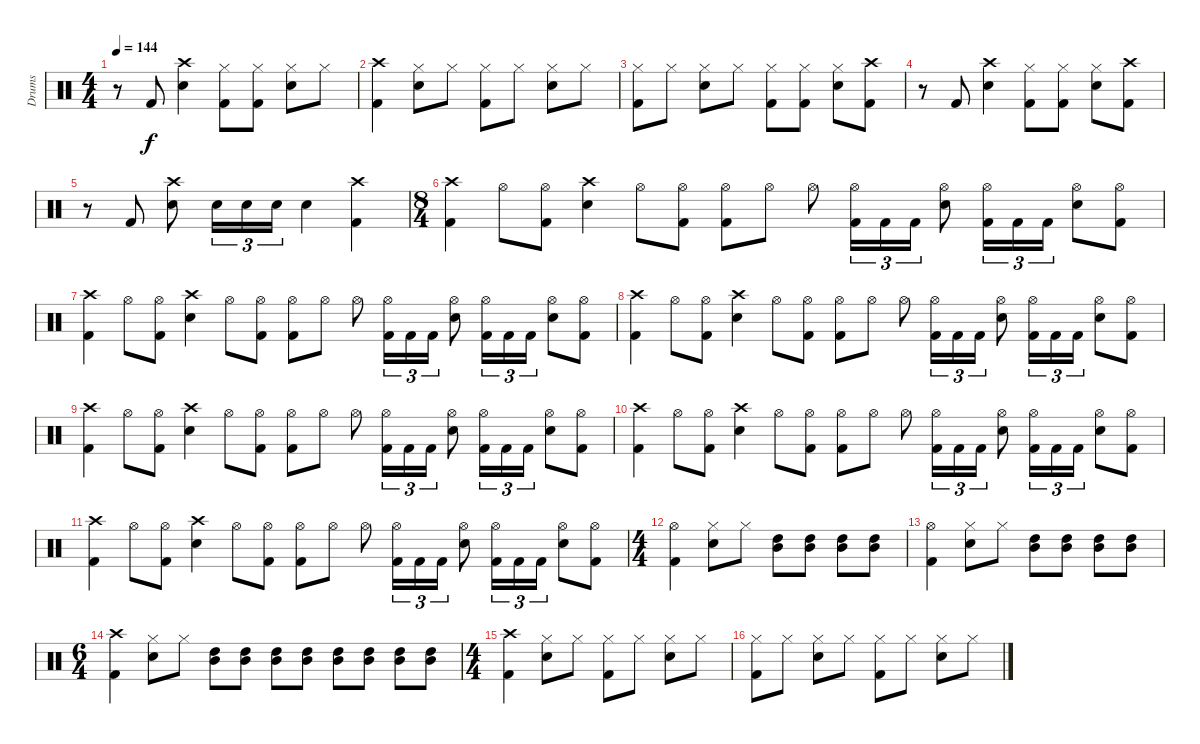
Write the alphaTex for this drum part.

\track ("Drums" "Drums") {instrument percussion}
\staff {score}
\articulation defaults
\ts (4 4)
\tempo 144
\clef neutral
\ks c
r.8{dy f} "Kick (hit) 2".8 ("Crash high (hit)" "Snare (hit) 2").4 ("Hi-Hat (closed)" "Kick (hit) 2").8 ("Hi-Hat (closed)" "Kick (hit) 2").8 ("Hi-Hat (closed)" "Snare (hit) 2").8 "Hi-Hat (closed)".8 |
("Crash high (hit)" "Kick (hit) 2").4 ("Hi-Hat (closed)" "Snare (hit) 2").8 "Hi-Hat (closed)".8 ("Hi-Hat (closed)" "Kick (hit) 2").8 "Hi-Hat (closed)".8 ("Hi-Hat (closed)" "Snare (hit) 2").8 "Hi-Hat (closed)".8 |
("Hi-Hat (closed)" "Kick (hit) 2").8 "Hi-Hat (closed)".8 ("Hi-Hat (closed)" "Snare (hit) 2").8 "Hi-Hat (closed)".8 ("Hi-Hat (closed)" "Kick (hit) 2").8 ("Hi-Hat (closed)" "Kick (hit) 2").8 ("Hi-Hat (closed)" "Snare (hit) 2").8 ("Crash high (hit)" "Kick (hit) 2").8 |
r.8 "Kick (hit) 2".8 ("Crash high (hit)" "Snare (hit) 2").4 ("Hi-Hat (closed)" "Kick (hit) 2").8 ("Hi-Hat (closed)" "Kick (hit) 2").8 ("Hi-Hat (closed)" "Snare (hit) 2").8 ("Crash high (hit)" "Kick (hit) 2").8 |
r.8 "Kick (hit) 2".8 ("Crash high (hit)" "Snare (hit) 2").8 "Snare (hit) 2".16{tu (3 2)} "Snare (hit) 2".16{tu (3 2)} "Snare (hit) 2".16{tu (3 2)} "Snare (hit) 2".4 ("Crash high (hit)" "Kick (hit) 2").4 |
\ts (8 4)
("Crash high (hit)" "Kick (hit) 2").4 "Hi-Hat (open)".8 ("Hi-Hat (open)" "Kick (hit) 2").8 ("Crash high (hit)" "Snare (hit) 2").4 "Hi-Hat (open)".8 ("Hi-Hat (open)" "Kick (hit) 2").8 ("Hi-Hat (open)" "Kick (hit) 2").8 "Hi-Hat (open)".8 "Hi-Hat (open)".8 ("Hi-Hat (open)" "Kick (hit) 2").16{tu (3 2)} "Kick (hit) 2".16{tu (3 2)} "Kick (hit) 2".16{tu (3 2)} ("Hi-Hat (open)" "Snare (hit) 2").8 ("Hi-Hat (open)" "Kick (hit) 2").16{tu (3 2)} "Kick (hit) 2".16{tu (3 2)} "Kick (hit) 2".16{tu (3 2)} ("Hi-Hat (open)" "Snare (hit) 2").8 ("Hi-Hat (open)" "Kick (hit) 2").8 |
("Crash high (hit)" "Kick (hit) 2").4 "Hi-Hat (open)".8 ("Hi-Hat (open)" "Kick (hit) 2").8 ("Crash high (hit)" "Snare (hit) 2").4 "Hi-Hat (open)".8 ("Hi-Hat (open)" "Kick (hit) 2").8 ("Hi-Hat (open)" "Kick (hit) 2").8 "Hi-Hat (open)".8 "Hi-Hat (open)".8 ("Hi-Hat (open)" "Kick (hit) 2").16{tu (3 2)} "Kick (hit) 2".16{tu (3 2)} "Kick (hit) 2".16{tu (3 2)} ("Hi-Hat (open)" "Snare (hit) 2").8 ("Hi-Hat (open)" "Kick (hit) 2").16{tu (3 2)} "Kick (hit) 2".16{tu (3 2)} "Kick (hit) 2".16{tu (3 2)} ("Hi-Hat (open)" "Snare (hit) 2").8 ("Hi-Hat (open)" "Kick (hit) 2").8 |
("Crash high (hit)" "Kick (hit) 2").4 "Hi-Hat (open)".8 ("Hi-Hat (open)" "Kick (hit) 2").8 ("Crash high (hit)" "Snare (hit) 2").4 "Hi-Hat (open)".8 ("Hi-Hat (open)" "Kick (hit) 2").8 ("Hi-Hat (open)" "Kick (hit) 2").8 "Hi-Hat (open)".8 "Hi-Hat (open)".8 ("Hi-Hat (open)" "Kick (hit) 2").16{tu (3 2)} "Kick (hit) 2".16{tu (3 2)} "Kick (hit) 2".16{tu (3 2)} ("Hi-Hat (open)" "Snare (hit) 2").8 ("Hi-Hat (open)" "Kick (hit) 2").16{tu (3 2)} "Kick (hit) 2".16{tu (3 2)} "Kick (hit) 2".16{tu (3 2)} ("Hi-Hat (open)" "Snare (hit) 2").8 ("Hi-Hat (open)" "Kick (hit) 2").8 |
("Crash high (hit)" "Kick (hit) 2").4 "Hi-Hat (open)".8 ("Hi-Hat (open)" "Kick (hit) 2").8 ("Crash high (hit)" "Snare (hit) 2").4 "Hi-Hat (open)".8 ("Hi-Hat (open)" "Kick (hit) 2").8 ("Hi-Hat (open)" "Kick (hit) 2").8 "Hi-Hat (open)".8 "Hi-Hat (open)".8 ("Hi-Hat (open)" "Kick (hit) 2").16{tu (3 2)} "Kick (hit) 2".16{tu (3 2)} "Kick (hit) 2".16{tu (3 2)} ("Hi-Hat (open)" "Snare (hit) 2").8 ("Hi-Hat (open)" "Kick (hit) 2").16{tu (3 2)} "Kick (hit) 2".16{tu (3 2)} "Kick (hit) 2".16{tu (3 2)} ("Hi-Hat (open)" "Snare (hit) 2").8 ("Hi-Hat (open)" "Kick (hit) 2").8 |
("Crash high (hit)" "Kick (hit) 2").4 "Hi-Hat (open)".8 ("Hi-Hat (open)" "Kick (hit) 2").8 ("Crash high (hit)" "Snare (hit) 2").4 "Hi-Hat (open)".8 ("Hi-Hat (open)" "Kick (hit) 2").8 ("Hi-Hat (open)" "Kick (hit) 2").8 "Hi-Hat (open)".8 "Hi-Hat (open)".8 ("Hi-Hat (open)" "Kick (hit) 2").16{tu (3 2)} "Kick (hit) 2".16{tu (3 2)} "Kick (hit) 2".16{tu (3 2)} ("Hi-Hat (open)" "Snare (hit) 2").8 ("Hi-Hat (open)" "Kick (hit) 2").16{tu (3 2)} "Kick (hit) 2".16{tu (3 2)} "Kick (hit) 2".16{tu (3 2)} ("Hi-Hat (open)" "Snare (hit) 2").8 ("Hi-Hat (open)" "Kick (hit) 2").8 |
("Crash high (hit)" "Kick (hit) 2").4 "Hi-Hat (open)".8 ("Hi-Hat (open)" "Kick (hit) 2").8 ("Crash high (hit)" "Snare (hit) 2").4 "Hi-Hat (open)".8 ("Hi-Hat (open)" "Kick (hit) 2").8 ("Hi-Hat (open)" "Kick (hit) 2").8 "Hi-Hat (open)".8 "Hi-Hat (open)".8 ("Hi-Hat (open)" "Kick (hit) 2").16{tu (3 2)} "Kick (hit) 2".16{tu (3 2)} "Kick (hit) 2".16{tu (3 2)} ("Hi-Hat (open)" "Snare (hit) 2").8 ("Hi-Hat (open)" "Kick (hit) 2").16{tu (3 2)} "Kick (hit) 2".16{tu (3 2)} "Kick (hit) 2".16{tu (3 2)} ("Hi-Hat (open)" "Snare (hit) 2").8 ("Hi-Hat (open)" "Kick (hit) 2").8 |
\ts (4 4)
("Hi-Hat (open)" "Kick (hit) 2").4 ("Hi-Hat (closed)" "Snare (hit) 2").8 "Hi-Hat (closed)".8 ("High Tom (hit)" "Mid Tom (hit)").8 ("High Tom (hit)" "Mid Tom (hit)").8 ("High Tom (hit)" "Mid Tom (hit)").8 ("High Tom (hit)" "Mid Tom (hit)").8 |
("Hi-Hat (open)" "Kick (hit) 2").4 ("Hi-Hat (closed)" "Snare (hit) 2").8 "Hi-Hat (closed)".8 ("High Tom (hit)" "Mid Tom (hit)").8 ("High Tom (hit)" "Mid Tom (hit)").8 ("High Tom (hit)" "Mid Tom (hit)").8 ("High Tom (hit)" "Mid Tom (hit)").8 |
\ts (6 4)
("Crash high (hit)" "Kick (hit) 2").4 ("Hi-Hat (closed)" "Snare (hit) 2").8 "Hi-Hat (closed)".8 ("High Tom (hit)" "Mid Tom (hit)").8 ("High Tom (hit)" "Mid Tom (hit)").8 ("High Tom (hit)" "Mid Tom (hit)").8 ("High Tom (hit)" "Mid Tom (hit)").8 ("High Tom (hit)" "Mid Tom (hit)").8 ("High Tom (hit)" "Mid Tom (hit)").8 ("High Tom (hit)" "Mid Tom (hit)").8 ("High Tom (hit)" "Mid Tom (hit)").8 |
\ts (4 4)
("Crash high (hit)" "Kick (hit) 2").4 ("Hi-Hat (closed)" "Snare (hit) 2").8 "Hi-Hat (closed)".8 ("Hi-Hat (closed)" "Kick (hit) 2").8 "Hi-Hat (closed)".8 ("Hi-Hat (closed)" "Snare (hit) 2").8 "Hi-Hat (closed)".8 |
("Hi-Hat (closed)" "Kick (hit) 2").8 "Hi-Hat (closed)".8 ("Hi-Hat (closed)" "Snare (hit) 2").8 "Hi-Hat (closed)".8 ("Hi-Hat (closed)" "Kick (hit) 2").8 "Hi-Hat (closed)".8 ("Hi-Hat (closed)" "Snare (hit) 2").8 "Hi-Hat (closed)".8
